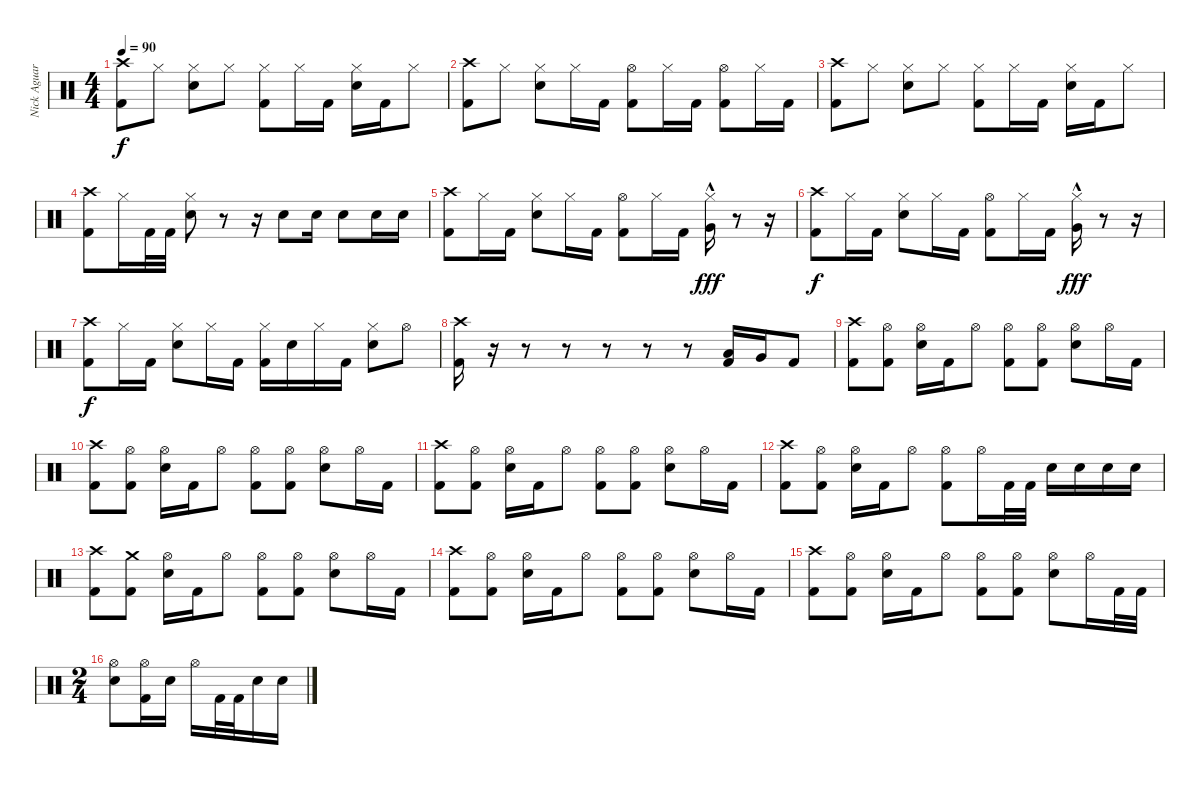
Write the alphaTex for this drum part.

\track ("Nick Aguara" "Nick Aguar") {instrument percussion}
\staff {score}
\articulation defaults
\ts (4 4)
\tempo 90
\clef neutral
\ks c
("Crash high (hit)" "Kick (hit) 2").8{dy f} "Hi-Hat (closed)".8 ("Hi-Hat (closed)" "Electric Snare (hit)").8 "Hi-Hat (closed)".8 ("Hi-Hat (closed)" "Kick (hit) 2").8 "Hi-Hat (closed)".16 "Kick (hit) 2".16 ("Hi-Hat (closed)" "Electric Snare (hit)").16 "Kick (hit) 2".16 "Hi-Hat (closed)".8 |
("Crash high (hit)" "Kick (hit) 2").8 "Hi-Hat (closed)".8 ("Hi-Hat (closed)" "Electric Snare (hit)").8 "Hi-Hat (closed)".16 "Kick (hit) 2".16 ("Hi-Hat (open)" "Kick (hit) 2").8 "Hi-Hat (closed)".16 "Kick (hit) 2".16 ("Hi-Hat (open)" "Kick (hit) 2").8 "Hi-Hat (closed)".16 "Kick (hit) 2".16 |
("Crash high (hit)" "Kick (hit) 2").8 "Hi-Hat (closed)".8 ("Hi-Hat (closed)" "Electric Snare (hit)").8 "Hi-Hat (closed)".8 ("Hi-Hat (closed)" "Kick (hit) 2").8 "Hi-Hat (closed)".16 "Kick (hit) 2".16 ("Hi-Hat (closed)" "Electric Snare (hit)").16 "Kick (hit) 2".16 "Hi-Hat (closed)".8 |
("Crash high (hit)" "Kick (hit) 2").8 "Hi-Hat (closed)".16 "Kick (hit) 2".32 "Kick (hit) 2".32 ("Hi-Hat (closed)" "Electric Snare (hit)").8 r.8 r.16 "Electric Snare (hit)".8 "Electric Snare (hit)".16 "Electric Snare (hit)".8 "Electric Snare (hit)".16 "Electric Snare (hit)".16 |
("Crash high (hit)" "Kick (hit) 2").8 "Hi-Hat (closed)".16 "Kick (hit) 2".16 ("Hi-Hat (closed)" "Electric Snare (hit)").8 "Hi-Hat (closed)".16 "Kick (hit) 2".16 ("Hi-Hat (open)" "Kick (hit) 2").8 "Hi-Hat (closed)".16 "Kick (hit) 2".16 ("Hi-Hat (closed)" "Very Low Tom (hit)"{hac}).16{dy fff} r.8 r.16 |
("Crash high (hit)" "Kick (hit) 2").8{dy f} "Hi-Hat (closed)".16 "Kick (hit) 2".16 ("Hi-Hat (closed)" "Electric Snare (hit)").8 "Hi-Hat (closed)".16 "Kick (hit) 2".16 ("Hi-Hat (open)" "Kick (hit) 2").8 "Hi-Hat (closed)".16 "Kick (hit) 2".16 ("Hi-Hat (closed)" "Very Low Tom (hit)"{hac}).16{dy fff} r.8 r.16 |
("Crash high (hit)" "Kick (hit) 2").8{dy f} "Hi-Hat (closed)".16 "Kick (hit) 2".16 ("Hi-Hat (closed)" "Electric Snare (hit)").8 "Hi-Hat (closed)".16 "Kick (hit) 2".16 ("Hi-Hat (closed)" "Kick (hit) 2").16 "Electric Snare (hit)".16 "Hi-Hat (closed)".16 "Kick (hit) 2".16 ("Hi-Hat (closed)" "Electric Snare (hit)").8 "Hi-Hat (open)".8 |
("Crash high (hit)" "Kick (hit) 2").16 r.16{volume 0} r.8 r.8 r.8 r.8 r.8 ("Low Tom (hit)" "Kick (hit) 2").16{volume 16} "Very Low Tom (hit)".16 "Kick (hit) 2".8 |
("Crash high (hit)" "Kick (hit) 2").8 ("Hi-Hat (open)" "Kick (hit) 2").8 ("Hi-Hat (open)" "Electric Snare (hit)").16 "Kick (hit) 2".16 "Hi-Hat (open)".8 ("Hi-Hat (open)" "Kick (hit) 2").8 ("Hi-Hat (open)" "Kick (hit) 2").8 ("Hi-Hat (open)" "Electric Snare (hit)").8 "Hi-Hat (open)".16 "Kick (hit) 2".16 |
("Crash high (hit)" "Kick (hit) 2").8 ("Hi-Hat (open)" "Kick (hit) 2").8 ("Hi-Hat (open)" "Electric Snare (hit)").16 "Kick (hit) 2".16 "Hi-Hat (open)".8 ("Hi-Hat (open)" "Kick (hit) 2").8 ("Hi-Hat (open)" "Kick (hit) 2").8 ("Hi-Hat (open)" "Electric Snare (hit)").8 "Hi-Hat (open)".16 "Kick (hit) 2".16 |
("Crash high (hit)" "Kick (hit) 2").8 ("Hi-Hat (open)" "Kick (hit) 2").8 ("Hi-Hat (open)" "Electric Snare (hit)").16 "Kick (hit) 2".16 "Hi-Hat (open)".8 ("Hi-Hat (open)" "Kick (hit) 2").8 ("Hi-Hat (open)" "Kick (hit) 2").8 ("Hi-Hat (open)" "Electric Snare (hit)").8 "Hi-Hat (open)".16 "Kick (hit) 2".16 |
("Crash high (hit)" "Kick (hit) 2").8 ("Hi-Hat (open)" "Kick (hit) 2").8 ("Hi-Hat (open)" "Electric Snare (hit)").16 "Kick (hit) 2".16 "Hi-Hat (open)".8 ("Hi-Hat (open)" "Kick (hit) 2").8 "Hi-Hat (open)".16 "Kick (hit) 2".32 "Kick (hit) 2".32 "Electric Snare (hit)".16 "Electric Snare (hit)".16 "Electric Snare (hit)".16 "Electric Snare (hit)".16 |
("Crash high (hit)" "Kick (hit) 2").8 ("Crash medium (hit)" "Kick (hit) 2").8 ("Hi-Hat (open)" "Electric Snare (hit)").16 "Kick (hit) 2".16 "Hi-Hat (open)".8 ("Hi-Hat (open)" "Kick (hit) 2").8 ("Hi-Hat (open)" "Kick (hit) 2").8 ("Hi-Hat (open)" "Electric Snare (hit)").8 "Hi-Hat (open)".16 "Kick (hit) 2".16 |
("Crash high (hit)" "Kick (hit) 2").8 ("Hi-Hat (open)" "Kick (hit) 2").8 ("Hi-Hat (open)" "Electric Snare (hit)").16 "Kick (hit) 2".16 "Hi-Hat (open)".8 ("Hi-Hat (open)" "Kick (hit) 2").8 ("Hi-Hat (open)" "Kick (hit) 2").8 ("Hi-Hat (open)" "Electric Snare (hit)").8 "Hi-Hat (open)".16 "Kick (hit) 2".16 |
("Crash high (hit)" "Kick (hit) 2").8 ("Hi-Hat (open)" "Kick (hit) 2").8 ("Hi-Hat (open)" "Electric Snare (hit)").16 "Kick (hit) 2".16 "Hi-Hat (open)".8 ("Hi-Hat (open)" "Kick (hit) 2").8 ("Hi-Hat (open)" "Kick (hit) 2").8 ("Hi-Hat (open)" "Electric Snare (hit)").8 "Hi-Hat (open)".16 "Kick (hit) 2".32 "Kick (hit) 2".32 |
\ts (2 4)
("Hi-Hat (open)" "Electric Snare (hit)").8 ("Hi-Hat (open)" "Kick (hit) 2").16 "Electric Snare (hit)".16 "Hi-Hat (open)".16 "Kick (hit) 2".32 "Kick (hit) 2".32 "Electric Snare (hit)".16 "Electric Snare (hit)".16
